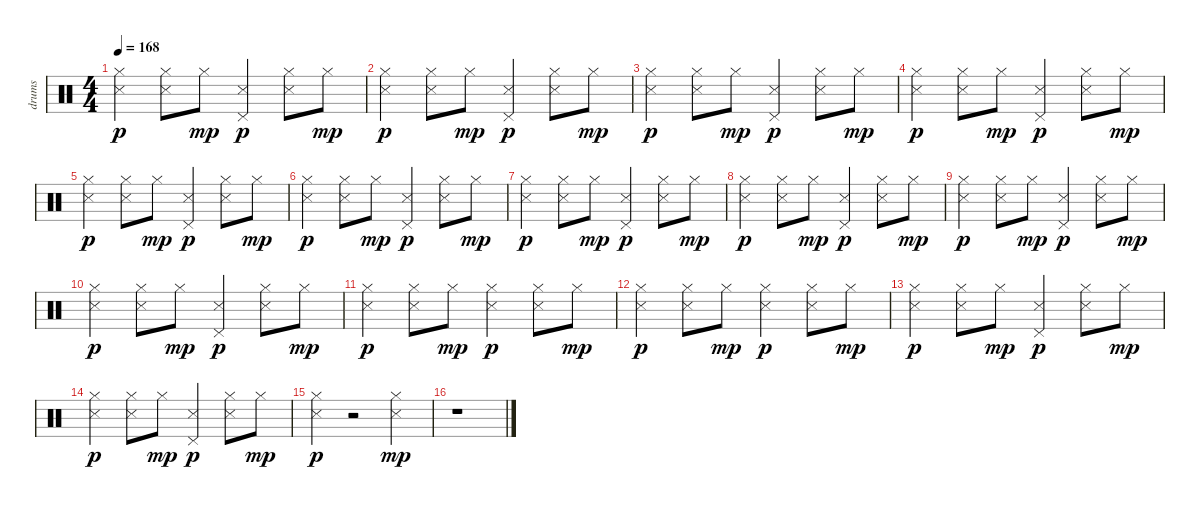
\track ("drums" "drums") {instrument percussion}
\staff {score}
\articulation defaults
\ts (4 4)
\tempo 168
\clef neutral
\ks c
("Hi-Hat (closed)" "Snare (side stick) 3").4{dy p} ("Hi-Hat (closed)" "Snare (side stick) 3").8 "Hi-Hat (closed)".8{dy mp} ("Pedal Hi-Hat (hit)" "Snare (side stick) 3").4{dy p} ("Hi-Hat (closed)" "Snare (side stick) 3").8 "Hi-Hat (closed)".8{dy mp} |
("Hi-Hat (closed)" "Snare (side stick) 3").4{dy p} ("Hi-Hat (closed)" "Snare (side stick) 3").8 "Hi-Hat (closed)".8{dy mp} ("Pedal Hi-Hat (hit)" "Snare (side stick) 3").4{dy p} ("Hi-Hat (closed)" "Snare (side stick) 3").8 "Hi-Hat (closed)".8{dy mp} |
("Hi-Hat (closed)" "Snare (side stick) 3").4{dy p} ("Hi-Hat (closed)" "Snare (side stick) 3").8 "Hi-Hat (closed)".8{dy mp} ("Pedal Hi-Hat (hit)" "Snare (side stick) 3").4{dy p} ("Hi-Hat (closed)" "Snare (side stick) 3").8 "Hi-Hat (closed)".8{dy mp} |
("Hi-Hat (closed)" "Snare (side stick) 3").4{dy p} ("Hi-Hat (closed)" "Snare (side stick) 3").8 "Hi-Hat (closed)".8{dy mp} ("Pedal Hi-Hat (hit)" "Snare (side stick) 3").4{dy p} ("Hi-Hat (closed)" "Snare (side stick) 3").8 "Hi-Hat (closed)".8{dy mp} |
("Hi-Hat (closed)" "Snare (side stick) 3").4{dy p} ("Hi-Hat (closed)" "Snare (side stick) 3").8 "Hi-Hat (closed)".8{dy mp} ("Pedal Hi-Hat (hit)" "Snare (side stick) 3").4{dy p} ("Hi-Hat (closed)" "Snare (side stick) 3").8 "Hi-Hat (closed)".8{dy mp} |
("Hi-Hat (closed)" "Snare (side stick) 3").4{dy p} ("Hi-Hat (closed)" "Snare (side stick) 3").8 "Hi-Hat (closed)".8{dy mp} ("Pedal Hi-Hat (hit)" "Snare (side stick) 3").4{dy p} ("Hi-Hat (closed)" "Snare (side stick) 3").8 "Hi-Hat (closed)".8{dy mp} |
("Hi-Hat (closed)" "Snare (side stick) 3").4{dy p} ("Hi-Hat (closed)" "Snare (side stick) 3").8 "Hi-Hat (closed)".8{dy mp} ("Pedal Hi-Hat (hit)" "Snare (side stick) 3").4{dy p} ("Hi-Hat (closed)" "Snare (side stick) 3").8 "Hi-Hat (closed)".8{dy mp} |
("Hi-Hat (closed)" "Snare (side stick) 3").4{dy p} ("Hi-Hat (closed)" "Snare (side stick) 3").8 "Hi-Hat (closed)".8{dy mp} ("Pedal Hi-Hat (hit)" "Snare (side stick) 3").4{dy p} ("Hi-Hat (closed)" "Snare (side stick) 3").8 "Hi-Hat (closed)".8{dy mp} |
("Hi-Hat (closed)" "Snare (side stick) 3").4{dy p} ("Hi-Hat (closed)" "Snare (side stick) 3").8 "Hi-Hat (closed)".8{dy mp} ("Pedal Hi-Hat (hit)" "Snare (side stick) 3").4{dy p} ("Hi-Hat (closed)" "Snare (side stick) 3").8 "Hi-Hat (closed)".8{dy mp} |
("Hi-Hat (closed)" "Snare (side stick) 3").4{dy p} ("Hi-Hat (closed)" "Snare (side stick) 3").8 "Hi-Hat (closed)".8{dy mp} ("Pedal Hi-Hat (hit)" "Snare (side stick) 3").4{dy p} ("Hi-Hat (closed)" "Snare (side stick) 3").8 "Hi-Hat (closed)".8{dy mp} |
("Hi-Hat (closed)" "Snare (side stick) 3").4{dy p} ("Hi-Hat (closed)" "Snare (side stick) 3").8 "Hi-Hat (closed)".8{dy mp} ("Hi-Hat (closed)" "Snare (side stick) 3").4{dy p} ("Hi-Hat (closed)" "Snare (side stick) 3").8 "Hi-Hat (closed)".8{dy mp} |
("Hi-Hat (closed)" "Snare (side stick) 3").4{dy p} ("Hi-Hat (closed)" "Snare (side stick) 3").8 "Hi-Hat (closed)".8{dy mp} ("Hi-Hat (closed)" "Snare (side stick) 3").4{dy p} ("Hi-Hat (closed)" "Snare (side stick) 3").8 "Hi-Hat (closed)".8{dy mp} |
("Hi-Hat (closed)" "Snare (side stick) 3").4{dy p} ("Hi-Hat (closed)" "Snare (side stick) 3").8 "Hi-Hat (closed)".8{dy mp} ("Pedal Hi-Hat (hit)" "Snare (side stick) 3").4{dy p} ("Hi-Hat (closed)" "Snare (side stick) 3").8 "Hi-Hat (closed)".8{dy mp} |
("Hi-Hat (closed)" "Snare (side stick) 3").4{dy p} ("Hi-Hat (closed)" "Snare (side stick) 3").8 "Hi-Hat (closed)".8{dy mp} ("Pedal Hi-Hat (hit)" "Snare (side stick) 3").4{dy p} ("Hi-Hat (closed)" "Snare (side stick) 3").8 "Hi-Hat (closed)".8{dy mp} |
("Hi-Hat (closed)" "Snare (side stick) 3").4{dy p} r.2 ("Hi-Hat (closed)" "Snare (side stick) 3").4{dy mp} |
r.1
